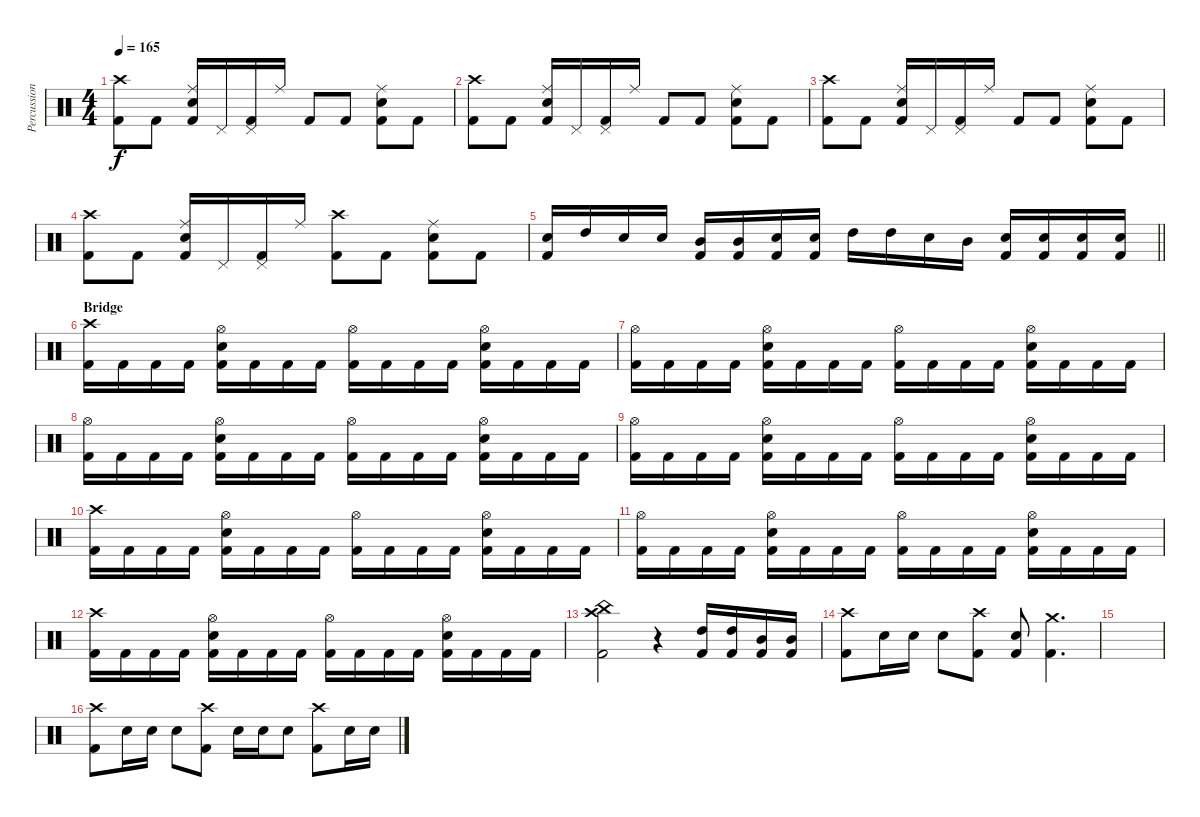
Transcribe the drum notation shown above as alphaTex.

\track ("Percussion" "Percussion") {instrument percussion}
\staff {score}
\articulation defaults
\ts (4 4)
\tempo 165
\clef neutral
\ks c
("Crash high (hit)" "Kick (hit) 2").8{dy f} "Kick (hit) 2".8 ("Snare (hit) 2" "Ride (middle)" "Kick (hit) 2").16 "Pedal Hi-Hat (hit)".16 ("Pedal Hi-Hat (hit)" "Kick (hit) 2").16 "Ride (middle)".16 "Kick (hit) 2".8 "Kick (hit) 2".8 ("Ride (middle)" "Snare (hit) 2" "Kick (hit) 2").8 "Kick (hit) 2".8 |
("Crash high (hit)" "Kick (hit) 2").8 "Kick (hit) 2".8 ("Snare (hit) 2" "Ride (middle)" "Kick (hit) 2").16 "Pedal Hi-Hat (hit)".16 ("Pedal Hi-Hat (hit)" "Kick (hit) 2").16 "Ride (middle)".16 "Kick (hit) 2".8 "Kick (hit) 2".8 ("Ride (middle)" "Snare (hit) 2" "Kick (hit) 2").8 "Kick (hit) 2".8 |
("Crash high (hit)" "Kick (hit) 2").8 "Kick (hit) 2".8 ("Snare (hit) 2" "Ride (middle)" "Kick (hit) 2").16 "Pedal Hi-Hat (hit)".16 ("Pedal Hi-Hat (hit)" "Kick (hit) 2").16 "Ride (middle)".16 "Kick (hit) 2".8 "Kick (hit) 2".8 ("Ride (middle)" "Snare (hit) 2" "Kick (hit) 2").8 "Kick (hit) 2".8 |
("Crash high (hit)" "Kick (hit) 2").8 "Kick (hit) 2".8 ("Snare (hit) 2" "Ride (middle)" "Kick (hit) 2").16 "Pedal Hi-Hat (hit)".16 ("Pedal Hi-Hat (hit)" "Kick (hit) 2").16 "Ride (middle)".16 ("Crash high (hit)" "Kick (hit) 2").8 "Kick (hit) 2".8 ("Ride (middle)" "Snare (hit) 2" "Kick (hit) 2").8 "Kick (hit) 2".8 |
\barLineRight lightlight
("Snare (hit) 2" "Kick (hit) 2").16 "High Tom (hit)".16 "Snare (hit) 2".16 "Snare (hit) 2".16 ("Mid Tom (hit)" "Kick (hit) 2").16 ("Mid Tom (hit)" "Kick (hit) 2").16 ("Snare (hit) 2" "Kick (hit) 2").16 ("Snare (hit) 2" "Kick (hit) 2").16 "High Tom (hit)".16 "High Tom (hit)".16 "Snare (hit) 2".16 "Mid Tom (hit)".16 ("Snare (hit) 2" "Kick (hit) 2").16 ("Snare (hit) 2" "Kick (hit) 2").16 ("Snare (hit) 2" "Kick (hit) 2").16 ("Snare (hit) 2" "Kick (hit) 2").16 |
\section ("" "Bridge")
("Kick (hit) 2" "Crash high (hit)").16 "Kick (hit) 2".16 "Kick (hit) 2".16 "Kick (hit) 2".16 ("Kick (hit) 2" "Hi-Hat (open)" "Snare (hit) 2").16 "Kick (hit) 2".16 "Kick (hit) 2".16 "Kick (hit) 2".16 ("Kick (hit) 2" "Hi-Hat (open)").16 "Kick (hit) 2".16 "Kick (hit) 2".16 "Kick (hit) 2".16 ("Kick (hit) 2" "Hi-Hat (open)" "Snare (hit) 2").16 "Kick (hit) 2".16 "Kick (hit) 2".16 "Kick (hit) 2".16 |
("Kick (hit) 2" "Hi-Hat (open)").16 "Kick (hit) 2".16 "Kick (hit) 2".16 "Kick (hit) 2".16 ("Kick (hit) 2" "Hi-Hat (open)" "Snare (hit) 2").16 "Kick (hit) 2".16 "Kick (hit) 2".16 "Kick (hit) 2".16 ("Kick (hit) 2" "Hi-Hat (open)").16 "Kick (hit) 2".16 "Kick (hit) 2".16 "Kick (hit) 2".16 ("Kick (hit) 2" "Hi-Hat (open)" "Snare (hit) 2").16 "Kick (hit) 2".16 "Kick (hit) 2".16 "Kick (hit) 2".16 |
("Kick (hit) 2" "Hi-Hat (open)").16 "Kick (hit) 2".16 "Kick (hit) 2".16 "Kick (hit) 2".16 ("Kick (hit) 2" "Hi-Hat (open)" "Snare (hit) 2").16 "Kick (hit) 2".16 "Kick (hit) 2".16 "Kick (hit) 2".16 ("Kick (hit) 2" "Hi-Hat (open)").16 "Kick (hit) 2".16 "Kick (hit) 2".16 "Kick (hit) 2".16 ("Kick (hit) 2" "Hi-Hat (open)" "Snare (hit) 2").16 "Kick (hit) 2".16 "Kick (hit) 2".16 "Kick (hit) 2".16 |
("Kick (hit) 2" "Hi-Hat (open)").16 "Kick (hit) 2".16 "Kick (hit) 2".16 "Kick (hit) 2".16 ("Kick (hit) 2" "Hi-Hat (open)" "Snare (hit) 2").16 "Kick (hit) 2".16 "Kick (hit) 2".16 "Kick (hit) 2".16 ("Kick (hit) 2" "Hi-Hat (open)").16 "Kick (hit) 2".16 "Kick (hit) 2".16 "Kick (hit) 2".16 ("Kick (hit) 2" "Hi-Hat (open)" "Snare (hit) 2").16 "Kick (hit) 2".16 "Kick (hit) 2".16 "Kick (hit) 2".16 |
("Kick (hit) 2" "Crash high (hit)").16 "Kick (hit) 2".16 "Kick (hit) 2".16 "Kick (hit) 2".16 ("Kick (hit) 2" "Hi-Hat (open)" "Snare (hit) 2").16 "Kick (hit) 2".16 "Kick (hit) 2".16 "Kick (hit) 2".16 ("Kick (hit) 2" "Hi-Hat (open)").16 "Kick (hit) 2".16 "Kick (hit) 2".16 "Kick (hit) 2".16 ("Kick (hit) 2" "Hi-Hat (open)" "Snare (hit) 2").16 "Kick (hit) 2".16 "Kick (hit) 2".16 "Kick (hit) 2".16 |
("Kick (hit) 2" "Hi-Hat (open)").16 "Kick (hit) 2".16 "Kick (hit) 2".16 "Kick (hit) 2".16 ("Kick (hit) 2" "Hi-Hat (open)" "Snare (hit) 2").16 "Kick (hit) 2".16 "Kick (hit) 2".16 "Kick (hit) 2".16 ("Kick (hit) 2" "Hi-Hat (open)").16 "Kick (hit) 2".16 "Kick (hit) 2".16 "Kick (hit) 2".16 ("Kick (hit) 2" "Hi-Hat (open)" "Snare (hit) 2").16 "Kick (hit) 2".16 "Kick (hit) 2".16 "Kick (hit) 2".16 |
("Kick (hit) 2" "Crash high (hit)").16 "Kick (hit) 2".16 "Kick (hit) 2".16 "Kick (hit) 2".16 ("Kick (hit) 2" "Hi-Hat (open)" "Snare (hit) 2").16 "Kick (hit) 2".16 "Kick (hit) 2".16 "Kick (hit) 2".16 ("Kick (hit) 2" "Hi-Hat (open)").16 "Kick (hit) 2".16 "Kick (hit) 2".16 "Kick (hit) 2".16 ("Kick (hit) 2" "Hi-Hat (open)" "Snare (hit) 2").16 "Kick (hit) 2".16 "Kick (hit) 2".16 "Kick (hit) 2".16 |
("Crash high (hit)" "Kick (hit) 2" "China (hit)").2 r.4 ("Kick (hit) 2" "High Tom (hit)").16 ("Kick (hit) 2" "High Tom (hit)").16 ("Kick (hit) 2" "Mid Tom (hit)").16 ("Kick (hit) 2" "Mid Tom (hit)").16 |
("Kick (hit) 2" "Crash high (hit)").8 "Snare (hit) 2".16 "Snare (hit) 2".16 "Snare (hit) 2".8 ("Kick (hit) 2" "Crash high (hit)").8 ("Snare (hit) 2" "Kick (hit) 2").8 ("Kick (hit) 2" "Crash medium (hit)").4{d} |
|
("Kick (hit) 2" "Crash high (hit)").8 "Snare (hit) 2".16 "Snare (hit) 2".16 "Snare (hit) 2".8 ("Kick (hit) 2" "Crash high (hit)").8 "Snare (hit) 2".16 "Snare (hit) 2".16 "Snare (hit) 2".8 ("Kick (hit) 2" "Crash high (hit)").8 "Snare (hit) 2".16 "Snare (hit) 2".16
